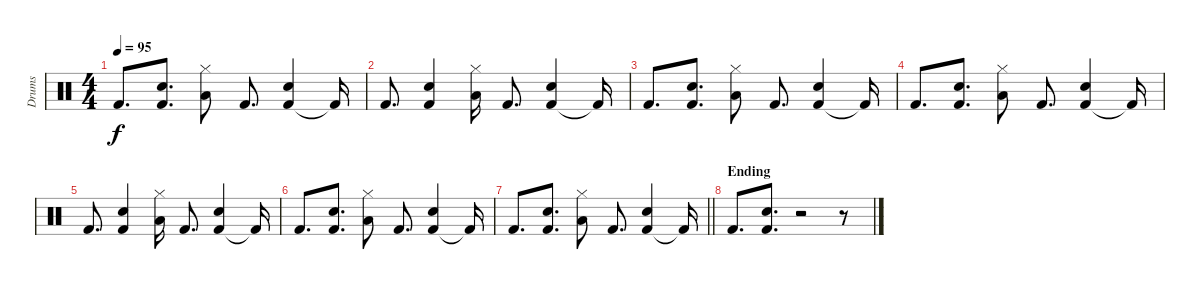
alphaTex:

\track ("Drums" "Drums") {instrument percussion}
\staff {score}
\articulation defaults
\ts (4 4)
\tempo 95
\clef neutral
\ks c "Kick (hit) 2".8{d dy f}
("Kick (hit) 2" "Hand Clap (hit)").8{d} ("Low Tom (hit)" "Hi-Hat (closed)").8 "Kick (hit) 2".8{d} ("Kick (hit) 2" "Hand Clap (hit)").4 "Kick (hit) 2"{t}.16 |
"Kick (hit) 2".8{d} ("Kick (hit) 2" "Hand Clap (hit)").4 ("Low Tom (hit)" "Hi-Hat (closed)").16 "Kick (hit) 2".8{d} ("Kick (hit) 2" "Hand Clap (hit)").4 "Kick (hit) 2"{t}.16 |
"Kick (hit) 2".8{d} ("Kick (hit) 2" "Hand Clap (hit)").8{d} ("Low Tom (hit)" "Hi-Hat (closed)").8 "Kick (hit) 2".8{d} ("Kick (hit) 2" "Hand Clap (hit)").4 "Kick (hit) 2"{t}.16 |
"Kick (hit) 2".8{d} ("Kick (hit) 2" "Hand Clap (hit)").8{d} ("Low Tom (hit)" "Hi-Hat (closed)").8 "Kick (hit) 2".8{d} ("Kick (hit) 2" "Hand Clap (hit)").4 "Kick (hit) 2"{t}.16 |
"Kick (hit) 2".8{d} ("Kick (hit) 2" "Hand Clap (hit)").4 ("Low Tom (hit)" "Hi-Hat (closed)").16 "Kick (hit) 2".8{d} ("Kick (hit) 2" "Hand Clap (hit)").4 "Kick (hit) 2"{t}.16 |
"Kick (hit) 2".8{d} ("Kick (hit) 2" "Hand Clap (hit)").8{d} ("Low Tom (hit)" "Hi-Hat (closed)").8 "Kick (hit) 2".8{d} ("Kick (hit) 2" "Hand Clap (hit)").4 "Kick (hit) 2"{t}.16 |
\barLineRight lightlight "Kick (hit) 2".8{d}
("Kick (hit) 2" "Hand Clap (hit)").8{d} ("Low Tom (hit)" "Hi-Hat (closed)").8 "Kick (hit) 2".8{d} ("Kick (hit) 2" "Hand Clap (hit)").4 "Kick (hit) 2"{t}.16 |
\section ("" "Ending")
"Kick (hit) 2".8{d} ("Kick (hit) 2" "Hand Clap (hit)").8{d} r.2 r.8
